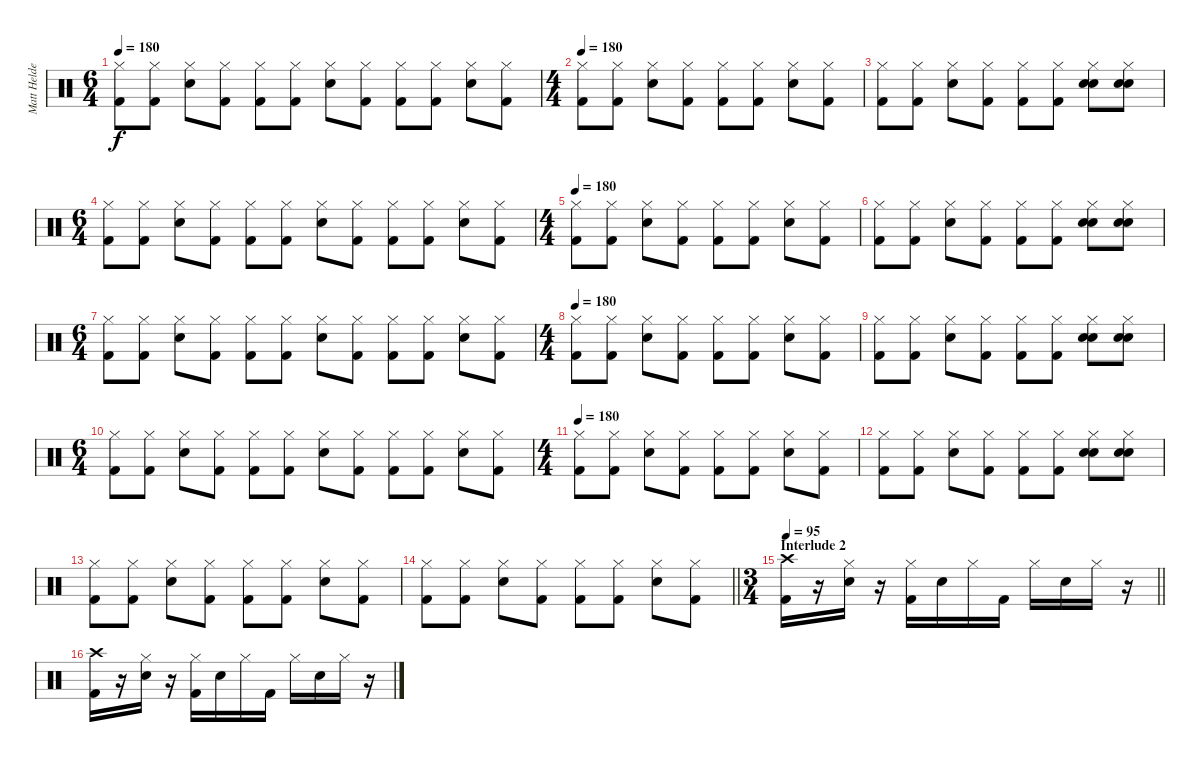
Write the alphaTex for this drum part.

\track ("Matt Helders" "Matt Helde") {instrument percussion}
\staff {score}
\articulation defaults
\ts (6 4)
\tempo 180
\clef neutral
\ks c
("Hi-Hat (closed)" "Kick (hit) 2").8{dy f} ("Hi-Hat (closed)" "Kick (hit) 2").8 ("Hi-Hat (closed)" "Electric Snare (hit)").8 ("Hi-Hat (closed)" "Kick (hit) 2").8 ("Hi-Hat (closed)" "Kick (hit) 2").8 ("Hi-Hat (closed)" "Kick (hit) 2").8 ("Hi-Hat (closed)" "Electric Snare (hit)").8 ("Hi-Hat (closed)" "Kick (hit) 2").8 ("Hi-Hat (closed)" "Kick (hit) 2").8 ("Hi-Hat (closed)" "Kick (hit) 2").8 ("Hi-Hat (closed)" "Electric Snare (hit)").8 ("Hi-Hat (closed)" "Kick (hit) 2").8 |
\ts (4 4)
\tempo 180
("Hi-Hat (closed)" "Kick (hit) 2").8 ("Hi-Hat (closed)" "Kick (hit) 2").8 ("Hi-Hat (closed)" "Electric Snare (hit)").8 ("Hi-Hat (closed)" "Kick (hit) 2").8 ("Hi-Hat (closed)" "Kick (hit) 2").8 ("Hi-Hat (closed)" "Kick (hit) 2").8 ("Hi-Hat (closed)" "Electric Snare (hit)").8 ("Hi-Hat (closed)" "Kick (hit) 2").8 |
("Hi-Hat (closed)" "Kick (hit) 2").8 ("Hi-Hat (closed)" "Kick (hit) 2").8 ("Hi-Hat (closed)" "Electric Snare (hit)").8 ("Hi-Hat (closed)" "Kick (hit) 2").8 ("Hi-Hat (closed)" "Kick (hit) 2").8 ("Hi-Hat (closed)" "Kick (hit) 2").8 ("Hand Clap (hit)" "Hi-Hat (closed)" "Electric Snare (hit)").8 ("Hand Clap (hit)" "Hi-Hat (closed)" "Electric Snare (hit)").8 |
\ts (6 4)
("Hi-Hat (closed)" "Kick (hit) 2").8 ("Hi-Hat (closed)" "Kick (hit) 2").8 ("Hi-Hat (closed)" "Electric Snare (hit)").8 ("Hi-Hat (closed)" "Kick (hit) 2").8 ("Hi-Hat (closed)" "Kick (hit) 2").8 ("Hi-Hat (closed)" "Kick (hit) 2").8 ("Hi-Hat (closed)" "Electric Snare (hit)").8 ("Hi-Hat (closed)" "Kick (hit) 2").8 ("Hi-Hat (closed)" "Kick (hit) 2").8 ("Hi-Hat (closed)" "Kick (hit) 2").8 ("Hi-Hat (closed)" "Electric Snare (hit)").8 ("Hi-Hat (closed)" "Kick (hit) 2").8 |
\ts (4 4)
\tempo 180
("Hi-Hat (closed)" "Kick (hit) 2").8 ("Hi-Hat (closed)" "Kick (hit) 2").8 ("Hi-Hat (closed)" "Electric Snare (hit)").8 ("Hi-Hat (closed)" "Kick (hit) 2").8 ("Hi-Hat (closed)" "Kick (hit) 2").8 ("Hi-Hat (closed)" "Kick (hit) 2").8 ("Hi-Hat (closed)" "Electric Snare (hit)").8 ("Hi-Hat (closed)" "Kick (hit) 2").8 |
("Hi-Hat (closed)" "Kick (hit) 2").8 ("Hi-Hat (closed)" "Kick (hit) 2").8 ("Hi-Hat (closed)" "Electric Snare (hit)").8 ("Hi-Hat (closed)" "Kick (hit) 2").8 ("Hi-Hat (closed)" "Kick (hit) 2").8 ("Hi-Hat (closed)" "Kick (hit) 2").8 ("Hand Clap (hit)" "Hi-Hat (closed)" "Electric Snare (hit)").8 ("Hand Clap (hit)" "Hi-Hat (closed)" "Electric Snare (hit)").8 |
\ts (6 4)
("Hi-Hat (closed)" "Kick (hit) 2").8 ("Hi-Hat (closed)" "Kick (hit) 2").8 ("Hi-Hat (closed)" "Electric Snare (hit)").8 ("Hi-Hat (closed)" "Kick (hit) 2").8 ("Hi-Hat (closed)" "Kick (hit) 2").8 ("Hi-Hat (closed)" "Kick (hit) 2").8 ("Hi-Hat (closed)" "Electric Snare (hit)").8 ("Hi-Hat (closed)" "Kick (hit) 2").8 ("Hi-Hat (closed)" "Kick (hit) 2").8 ("Hi-Hat (closed)" "Kick (hit) 2").8 ("Hi-Hat (closed)" "Electric Snare (hit)").8 ("Hi-Hat (closed)" "Kick (hit) 2").8 |
\ts (4 4)
\tempo 180
("Hi-Hat (closed)" "Kick (hit) 2").8 ("Hi-Hat (closed)" "Kick (hit) 2").8 ("Hi-Hat (closed)" "Electric Snare (hit)").8 ("Hi-Hat (closed)" "Kick (hit) 2").8 ("Hi-Hat (closed)" "Kick (hit) 2").8 ("Hi-Hat (closed)" "Kick (hit) 2").8 ("Hi-Hat (closed)" "Electric Snare (hit)").8 ("Hi-Hat (closed)" "Kick (hit) 2").8 |
("Hi-Hat (closed)" "Kick (hit) 2").8 ("Hi-Hat (closed)" "Kick (hit) 2").8 ("Hi-Hat (closed)" "Electric Snare (hit)").8 ("Hi-Hat (closed)" "Kick (hit) 2").8 ("Hi-Hat (closed)" "Kick (hit) 2").8 ("Hi-Hat (closed)" "Kick (hit) 2").8 ("Hand Clap (hit)" "Hi-Hat (closed)" "Electric Snare (hit)").8 ("Hand Clap (hit)" "Hi-Hat (closed)" "Electric Snare (hit)").8 |
\ts (6 4)
("Hi-Hat (closed)" "Kick (hit) 2").8 ("Hi-Hat (closed)" "Kick (hit) 2").8 ("Hi-Hat (closed)" "Electric Snare (hit)").8 ("Hi-Hat (closed)" "Kick (hit) 2").8 ("Hi-Hat (closed)" "Kick (hit) 2").8 ("Hi-Hat (closed)" "Kick (hit) 2").8 ("Hi-Hat (closed)" "Electric Snare (hit)").8 ("Hi-Hat (closed)" "Kick (hit) 2").8 ("Hi-Hat (closed)" "Kick (hit) 2").8 ("Hi-Hat (closed)" "Kick (hit) 2").8 ("Hi-Hat (closed)" "Electric Snare (hit)").8 ("Hi-Hat (closed)" "Kick (hit) 2").8 |
\ts (4 4)
\tempo 180
("Hi-Hat (closed)" "Kick (hit) 2").8 ("Hi-Hat (closed)" "Kick (hit) 2").8 ("Hi-Hat (closed)" "Electric Snare (hit)").8 ("Hi-Hat (closed)" "Kick (hit) 2").8 ("Hi-Hat (closed)" "Kick (hit) 2").8 ("Hi-Hat (closed)" "Kick (hit) 2").8 ("Hi-Hat (closed)" "Electric Snare (hit)").8 ("Hi-Hat (closed)" "Kick (hit) 2").8 |
("Hi-Hat (closed)" "Kick (hit) 2").8 ("Hi-Hat (closed)" "Kick (hit) 2").8 ("Hi-Hat (closed)" "Electric Snare (hit)").8 ("Hi-Hat (closed)" "Kick (hit) 2").8 ("Hi-Hat (closed)" "Kick (hit) 2").8 ("Hi-Hat (closed)" "Kick (hit) 2").8 ("Hand Clap (hit)" "Hi-Hat (closed)" "Electric Snare (hit)").8 ("Hand Clap (hit)" "Hi-Hat (closed)" "Electric Snare (hit)").8 |
("Hi-Hat (closed)" "Kick (hit) 2").8 ("Hi-Hat (closed)" "Kick (hit) 2").8 ("Hi-Hat (closed)" "Electric Snare (hit)").8 ("Hi-Hat (closed)" "Kick (hit) 2").8 ("Hi-Hat (closed)" "Kick (hit) 2").8 ("Hi-Hat (closed)" "Kick (hit) 2").8 ("Hi-Hat (closed)" "Electric Snare (hit)").8 ("Hi-Hat (closed)" "Kick (hit) 2").8 |
\barLineRight lightlight
("Hi-Hat (closed)" "Kick (hit) 2").8 ("Hi-Hat (closed)" "Kick (hit) 2").8 ("Hi-Hat (closed)" "Electric Snare (hit)").8 ("Hi-Hat (closed)" "Kick (hit) 2").8 ("Hi-Hat (closed)" "Kick (hit) 2").8 ("Hi-Hat (closed)" "Kick (hit) 2").8 ("Hi-Hat (closed)" "Electric Snare (hit)").8 ("Hi-Hat (closed)" "Kick (hit) 2").8 |
\ts (3 4)
\section ("" "Interlude 2")
\tempo 95
\barLineRight lightlight
("Crash high (hit)" "Kick (hit) 2").16 r.16 ("Hi-Hat (closed)" "Electric Snare (hit)").16 r.16 ("Hi-Hat (closed)" "Kick (hit) 2").16 "Electric Snare (hit)".16 "Hi-Hat (closed)".16 "Kick (hit) 2".16 "Hi-Hat (closed)".16 "Electric Snare (hit)".16 "Hi-Hat (closed)".16 r.16 |
("Crash high (hit)" "Kick (hit) 2").16 r.16 ("Hi-Hat (closed)" "Electric Snare (hit)").16 r.16 ("Hi-Hat (closed)" "Kick (hit) 2").16 "Electric Snare (hit)".16 "Hi-Hat (closed)".16 "Kick (hit) 2".16 "Hi-Hat (closed)".16 "Electric Snare (hit)".16 "Hi-Hat (closed)".16 r.16
